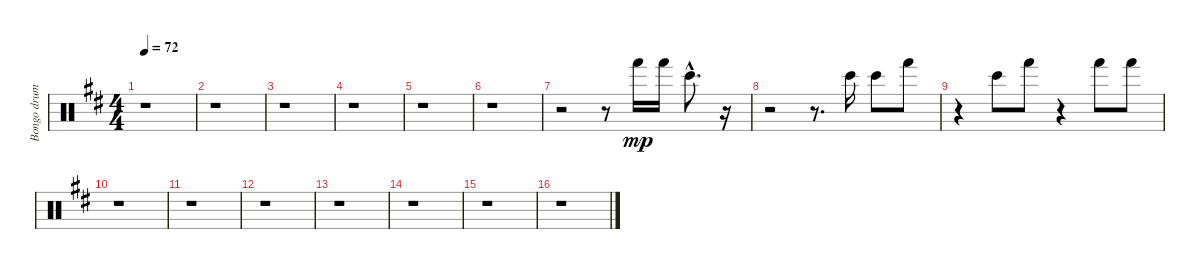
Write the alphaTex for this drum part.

\track ("Bongo drums" "Bongo drum") {instrument percussion}
\staff {score}
\articulation defaults
\ts (4 4)
\tempo 72
\clef neutral
\ks d
r.1{dy mp} |
r.1 |
r.1 |
r.1 |
r.1 |
r.1 |
r.2 r.8 "Hand (hit)".16 "Hand (hit)".16 "Bongo High (hit)"{hac}.8{d} r.16 |
r.2 r.8{d} "Bongo High (hit)".16 "Bongo High (hit)".8 "Hand (hit)".8 |
r.4 "Bongo High (hit)".8 "Hand (hit)".8 r.4 "Hand (hit)".8 "Hand (hit)".8 |
r.1 |
r.1 |
r.1 |
r.1 |
r.1 |
r.1 |
r.1
